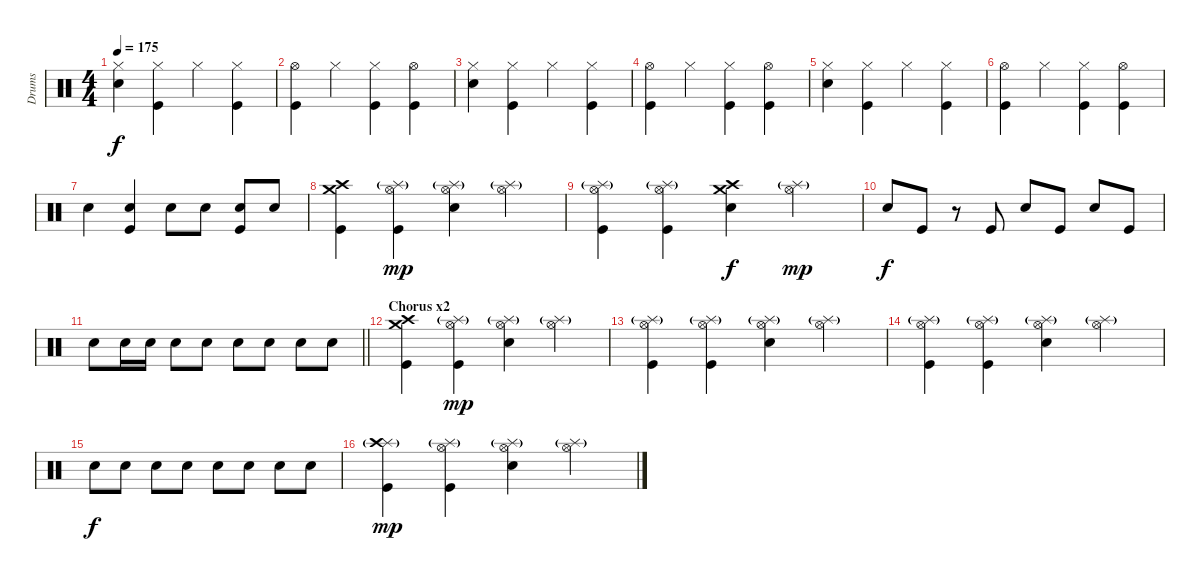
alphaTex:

\track ("Drums" "Drums") {instrument percussion}
\staff {score}
\articulation defaults
\ts (4 4)
\tempo 175
\clef neutral
\ks c
("Hi-Hat (closed)" "Electric Snare (hit)").4{dy f} ("Hi-Hat (closed)" "Kick (hit)").4 "Hi-Hat (closed)".4 ("Hi-Hat (closed)" "Kick (hit)").4 |
("Hi-Hat (open)" "Kick (hit)").4 "Hi-Hat (closed)".4 ("Hi-Hat (closed)" "Kick (hit)").4 ("Hi-Hat (open)" "Kick (hit)").4 |
("Hi-Hat (closed)" "Electric Snare (hit)").4 ("Hi-Hat (closed)" "Kick (hit)").4 "Hi-Hat (closed)".4 ("Hi-Hat (closed)" "Kick (hit)").4 |
("Hi-Hat (open)" "Kick (hit)").4 "Hi-Hat (closed)".4 ("Hi-Hat (closed)" "Kick (hit)").4 ("Hi-Hat (open)" "Kick (hit)").4 |
("Hi-Hat (closed)" "Electric Snare (hit)").4 ("Hi-Hat (closed)" "Kick (hit)").4 "Hi-Hat (closed)".4 ("Hi-Hat (closed)" "Kick (hit)").4 |
("Hi-Hat (open)" "Kick (hit)").4 "Hi-Hat (closed)".4 ("Hi-Hat (closed)" "Kick (hit)").4 ("Hi-Hat (open)" "Kick (hit)").4 |
"Electric Snare (hit)".4 ("Electric Snare (hit)" "Kick (hit)").4 "Electric Snare (hit)".8 "Electric Snare (hit)".8 ("Electric Snare (hit)" "Kick (hit)").8 "Electric Snare (hit)".8 |
("Crash medium (hit)" "Crash high (hit)" "Kick (hit)").4 ("Splash (hit)"{g} "Hi-Hat (open)" "Kick (hit)").4{dy mp} ("Splash (hit)"{g} "Hi-Hat (open)" "Electric Snare (hit)").4 ("Splash (hit)"{g} "Hi-Hat (open)").4 |
("Splash (hit)"{g} "Hi-Hat (open)" "Kick (hit)").4 ("Splash (hit)"{g} "Hi-Hat (open)" "Kick (hit)").4 ("Crash medium (hit)" "Crash high (hit)" "Electric Snare (hit)").4{dy f} ("Splash (hit)"{g} "Hi-Hat (open)").4{dy mp} |
"Electric Snare (hit)".8{dy f} "Kick (hit)".8 r.8 "Kick (hit)".8 "Electric Snare (hit)".8 "Kick (hit)".8 "Electric Snare (hit)".8 "Kick (hit)".8 |
\barLineRight lightlight "Electric Snare (hit)".8 "Electric Snare (hit)".16 "Electric Snare (hit)".16 "Electric Snare (hit)".8 "Electric Snare (hit)".8 "Electric Snare (hit)".8 "Electric Snare (hit)".8 "Electric Snare (hit)".8 "Electric Snare (hit)".8
|
\section ("" "Chorus x2")
("Crash medium (hit)" "Crash high (hit)" "Kick (hit)").4 ("Splash (hit)"{g} "Hi-Hat (open)" "Kick (hit)").4{dy mp} ("Splash (hit)"{g} "Hi-Hat (open)" "Electric Snare (hit)").4 ("Splash (hit)"{g} "Hi-Hat (open)").4 |
("Splash (hit)"{g} "Hi-Hat (open)" "Kick (hit)").4 ("Splash (hit)"{g} "Hi-Hat (open)" "Kick (hit)").4 ("Splash (hit)"{g} "Hi-Hat (open)" "Electric Snare (hit)").4 ("Splash (hit)"{g} "Hi-Hat (open)").4 |
("Splash (hit)"{g} "Hi-Hat (open)" "Kick (hit)").4 ("Splash (hit)"{g} "Hi-Hat (open)" "Kick (hit)").4 ("Splash (hit)"{g} "Hi-Hat (open)" "Electric Snare (hit)").4 ("Splash (hit)"{g} "Hi-Hat (open)").4 |
"Electric Snare (hit)".8{dy f} "Electric Snare (hit)".8 "Electric Snare (hit)".8 "Electric Snare (hit)".8 "Electric Snare (hit)".8 "Electric Snare (hit)".8 "Electric Snare (hit)".8 "Electric Snare (hit)".8 |
("Splash (hit)"{g} "Crash high (hit)" "Kick (hit)").4{dy mp} ("Splash (hit)"{g} "Hi-Hat (open)" "Kick (hit)").4 ("Splash (hit)"{g} "Hi-Hat (open)" "Electric Snare (hit)").4 ("Splash (hit)"{g} "Hi-Hat (open)").4
